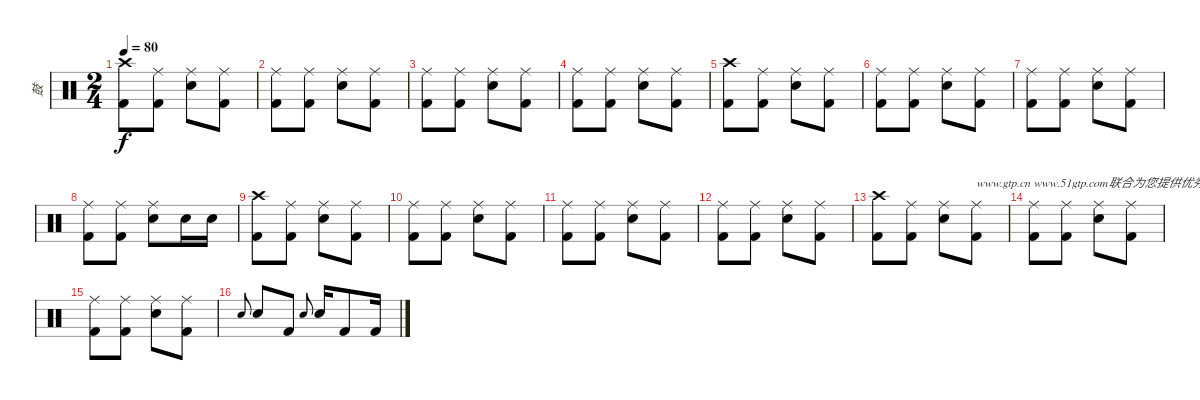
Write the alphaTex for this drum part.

\track ("鼓" "鼓") {instrument percussion}
\staff {score}
\articulation defaults
\ts (2 4)
\tempo 80
\clef neutral
\ks c
("Crash high (hit)" "Kick (hit) 2").8{dy f} ("Ride (middle)" "Kick (hit) 2").8 ("Ride (middle)" "Electric Snare (hit)").8 ("Ride (middle)" "Kick (hit) 2").8 |
("Ride (middle)" "Kick (hit) 2").8 ("Ride (middle)" "Kick (hit) 2").8 ("Ride (middle)" "Electric Snare (hit)").8 ("Ride (middle)" "Kick (hit) 2").8 |
("Ride (middle)" "Kick (hit) 2").8 ("Ride (middle)" "Kick (hit) 2").8 ("Ride (middle)" "Electric Snare (hit)").8 ("Ride (middle)" "Kick (hit) 2").8 |
("Ride (middle)" "Kick (hit) 2").8 ("Ride (middle)" "Kick (hit) 2").8 ("Ride (middle)" "Electric Snare (hit)").8 ("Ride (middle)" "Kick (hit) 2").8 |
("Crash high (hit)" "Kick (hit) 2").8 ("Ride (middle)" "Kick (hit) 2").8 ("Ride (middle)" "Electric Snare (hit)").8 ("Ride (middle)" "Kick (hit) 2").8 |
("Ride (middle)" "Kick (hit) 2").8 ("Ride (middle)" "Kick (hit) 2").8 ("Ride (middle)" "Electric Snare (hit)").8 ("Ride (middle)" "Kick (hit) 2").8 |
("Ride (middle)" "Kick (hit) 2").8 ("Ride (middle)" "Kick (hit) 2").8 ("Ride (middle)" "Electric Snare (hit)").8 ("Ride (middle)" "Kick (hit) 2").8 |
("Ride (middle)" "Kick (hit) 2").8 ("Ride (middle)" "Kick (hit) 2").8 ("Ride (middle)" "Electric Snare (hit)").8 "Electric Snare (hit)".16 "Electric Snare (hit)".16 |
("Crash high (hit)" "Kick (hit) 2").8 ("Ride (middle)" "Kick (hit) 2").8 ("Ride (middle)" "Electric Snare (hit)").8 ("Ride (middle)" "Kick (hit) 2").8 |
("Ride (middle)" "Kick (hit) 2").8 ("Ride (middle)" "Kick (hit) 2").8 ("Ride (middle)" "Electric Snare (hit)").8 ("Ride (middle)" "Kick (hit) 2").8 |
("Ride (middle)" "Kick (hit) 2").8 ("Ride (middle)" "Kick (hit) 2").8 ("Ride (middle)" "Electric Snare (hit)").8 ("Ride (middle)" "Kick (hit) 2").8 |
("Ride (middle)" "Kick (hit) 2").8 ("Ride (middle)" "Kick (hit) 2").8 ("Ride (middle)" "Electric Snare (hit)").8 ("Ride (middle)" "Kick (hit) 2").8 |
("Crash high (hit)" "Kick (hit) 2").8 ("Ride (middle)" "Kick (hit) 2").8 ("Ride (middle)" "Electric Snare (hit)").8 ("Ride (middle)" "Kick (hit) 2").8{txt "www.gtp.cn www.51gtp.com联合为您提供优秀的GTP!"} |
("Ride (middle)" "Kick (hit) 2").8 ("Ride (middle)" "Kick (hit) 2").8 ("Ride (middle)" "Electric Snare (hit)").8 ("Ride (middle)" "Kick (hit) 2").8 |
("Ride (middle)" "Kick (hit) 2").8 ("Ride (middle)" "Kick (hit) 2").8 ("Ride (middle)" "Electric Snare (hit)").8 ("Ride (middle)" "Kick (hit) 2").8 |
"Electric Snare (hit)".8{gr onbeat} "Electric Snare (hit)".8 "Kick (hit) 2".8 "Electric Snare (hit)".8{gr onbeat} "Electric Snare (hit)".16 "Kick (hit) 2".8 "Kick (hit) 2".16
